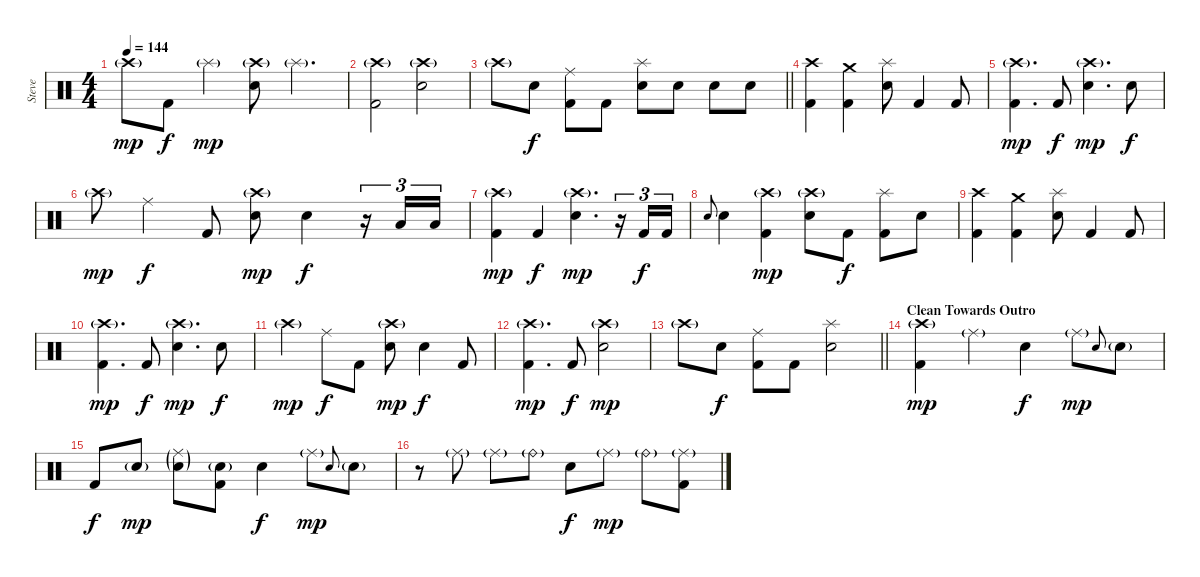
\track ("Steve" "Steve") {instrument percussion}
\staff {score}
\articulation defaults
\ts (4 4)
\tempo 144
\clef neutral
\ks c "Crash high (hit)"{g}.8{dy mp} "Kick (hit) 2".8{dy f} "Splash (hit)"{g}.4{dy mp}
("Crash high (hit)"{g} "Electric Snare (hit)").8 "Splash (hit)"{g}.4{d} |
("Crash high (hit)"{g} "Kick (hit) 2").2 ("Crash high (hit)"{g} "Electric Snare (hit)").2 |
\barLineRight lightlight "Crash high (hit)"{g}.8 "Electric Snare (hit)".8{dy f}
("Ride (middle)" "Kick (hit) 2").8 "Kick (hit) 2".8 ("Splash (hit)" "Electric Snare (hit)").8 "Electric Snare (hit)".8 "Electric Snare (hit)".8 "Electric Snare (hit)".8 |
("Crash high (hit)" "Kick (hit) 2").4 ("Crash medium (hit)" "Kick (hit) 2").4 ("Splash (hit)" "Electric Snare (hit)").8 "Kick (hit) 2".4 "Kick (hit) 2".8 |
("Crash high (hit)"{g} "Kick (hit) 2").4{d dy mp} "Kick (hit) 2".8{dy f} ("Crash high (hit)"{g} "Electric Snare (hit)").4{d dy mp} "Electric Snare (hit)".8{dy f} |
"Crash high (hit)"{g}.8{dy mp} "Ride (middle)".4{dy f} "Kick (hit) 2".8 ("Crash high (hit)"{g} "Electric Snare (hit)").8{dy mp} "Electric Snare (hit)".4{dy f} r.16{tu (3 2)} "Low Tom (hit)".16{tu (3 2)} "Low Tom (hit)".16{tu (3 2)} |
("Crash high (hit)"{g} "Kick (hit) 2").4{dy mp} "Kick (hit) 2".4{dy f} ("Crash high (hit)"{g} "Electric Snare (hit)").4{d dy mp} r.16{tu (3 2)} "Kick (hit) 2".16{tu (3 2) dy f} "Kick (hit) 2".16{tu (3 2)} |
"Electric Snare (hit)".8{gr onbeat} "Electric Snare (hit)".4 ("Crash high (hit)"{g} "Kick (hit) 2").4{dy mp} ("Crash high (hit)"{g} "Electric Snare (hit)").8 "Kick (hit) 2".8{dy f} ("Splash (hit)" "Kick (hit) 2").8 "Electric Snare (hit)".8 |
("Crash high (hit)" "Kick (hit) 2").4 ("Crash medium (hit)" "Kick (hit) 2").4 ("Splash (hit)" "Electric Snare (hit)").8 "Kick (hit) 2".4 "Kick (hit) 2".8 |
("Crash high (hit)"{g} "Kick (hit) 2").4{d dy mp} "Kick (hit) 2".8{dy f} ("Crash high (hit)"{g} "Electric Snare (hit)").4{d dy mp} "Electric Snare (hit)".8{dy f} |
"Crash high (hit)"{g}.4{dy mp} "Ride (middle)".8{dy f} "Kick (hit) 2".8 ("Crash high (hit)"{g} "Electric Snare (hit)").8{dy mp} "Electric Snare (hit)".4{dy f} "Kick (hit) 2".8 |
("Crash high (hit)"{g} "Kick (hit) 2").4{d dy mp} "Kick (hit) 2".8{dy f} ("Crash high (hit)"{g} "Electric Snare (hit)").2{dy mp} |
\barLineRight lightlight "Crash high (hit)"{g}.8 "Electric Snare (hit)".8{dy f}
("Ride (middle)" "Kick (hit) 2").8 "Kick (hit) 2".8 ("Splash (hit)" "Electric Snare (hit)").2 |
\section ("" "Clean Towards Outro")
("Crash high (hit)"{g} "Kick (hit) 2").4{dy mp} "Ride (middle)"{g}.4 "Electric Snare (hit)".4{dy f} "Ride (middle)"{g}.8{dy mp} "Electric Snare (hit)".8{gr onbeat} "Electric Snare (hit)"{g}.8 |
"Kick (hit) 2".8{dy f} "Electric Snare (hit)"{g}.8{dy mp} ("Ride (middle)"{g} "Electric Snare (hit)"{g}).8 ("Electric Snare (hit)"{g} "Kick (hit) 2").8 "Electric Snare (hit)".4{dy f} "Ride (middle)"{g}.8{dy mp} "Electric Snare (hit)".8{gr onbeat} "Electric Snare (hit)"{g}.8 |
r.8 "Ride (middle)"{g}.8 "Ride (middle)"{g}.8 "Ride (bell)"{g}.8 "Electric Snare (hit)".8{dy f} "Ride (middle)"{g}.8{dy mp} "Ride (bell)"{g}.8 ("Ride (middle)"{g} "Kick (hit) 2").8
